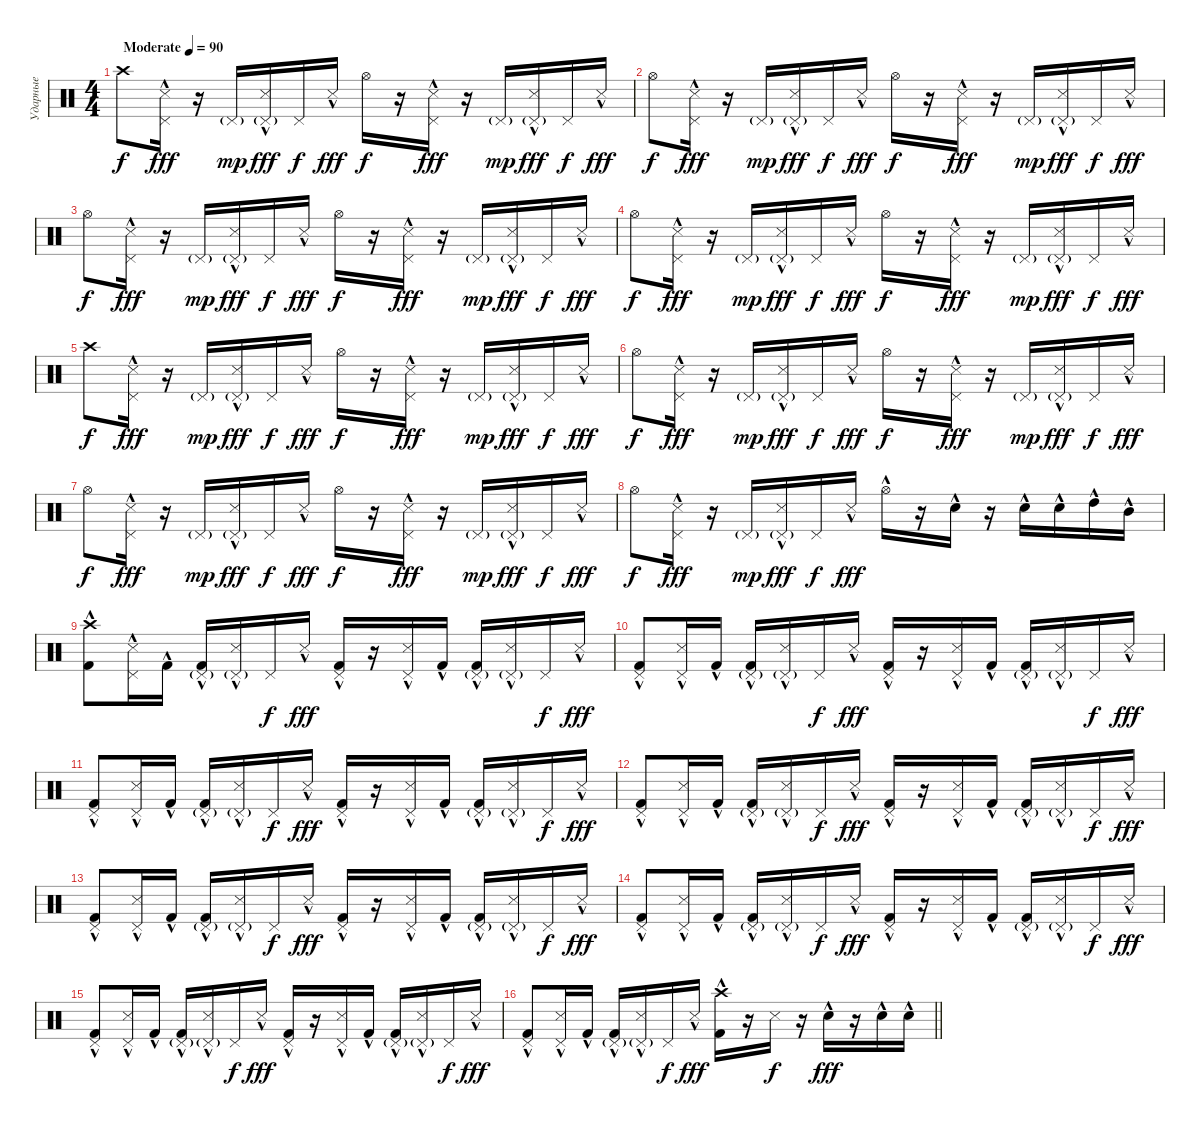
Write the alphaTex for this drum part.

\track ("Ударные" "Ударные") {instrument percussion}
\staff {score}
\articulation defaults
\ts (4 4)
\tempo (90 "Moderate")
\clef neutral
\ks c "Crash high (hit)".8{dy f}
("Pedal Hi-Hat (hit)" "Snare (side stick) 3"{hac}).16{dy fff} r.16 "Pedal Hi-Hat (hit)"{g}.16{dy mp} ("Pedal Hi-Hat (hit)"{g} "Snare (side stick) 3"{hac}).16{dy fff} "Pedal Hi-Hat (hit)".16{dy f} "Snare (side stick) 3"{hac}.16{dy fff} "Hi-Hat (open)".16{dy f} r.16 ("Pedal Hi-Hat (hit)" "Snare (side stick) 3"{hac}).16{dy fff} r.16 "Pedal Hi-Hat (hit)"{g}.16{dy mp} ("Pedal Hi-Hat (hit)"{g} "Snare (side stick) 3"{hac}).16{dy fff} "Pedal Hi-Hat (hit)".16{dy f} "Snare (side stick) 3"{hac}.16{dy fff} |
"Hi-Hat (open)".8{dy f} ("Pedal Hi-Hat (hit)" "Snare (side stick) 3"{hac}).16{dy fff} r.16 "Pedal Hi-Hat (hit)"{g}.16{dy mp} ("Pedal Hi-Hat (hit)"{g} "Snare (side stick) 3"{hac}).16{dy fff} "Pedal Hi-Hat (hit)".16{dy f} "Snare (side stick) 3"{hac}.16{dy fff} "Hi-Hat (open)".16{dy f} r.16 ("Pedal Hi-Hat (hit)" "Snare (side stick) 3"{hac}).16{dy fff} r.16 "Pedal Hi-Hat (hit)"{g}.16{dy mp} ("Pedal Hi-Hat (hit)"{g} "Snare (side stick) 3"{hac}).16{dy fff} "Pedal Hi-Hat (hit)".16{dy f} "Snare (side stick) 3"{hac}.16{dy fff} |
"Hi-Hat (open)".8{dy f} ("Pedal Hi-Hat (hit)" "Snare (side stick) 3"{hac}).16{dy fff} r.16 "Pedal Hi-Hat (hit)"{g}.16{dy mp} ("Pedal Hi-Hat (hit)"{g} "Snare (side stick) 3"{hac}).16{dy fff} "Pedal Hi-Hat (hit)".16{dy f} "Snare (side stick) 3"{hac}.16{dy fff} "Hi-Hat (open)".16{dy f} r.16 ("Pedal Hi-Hat (hit)" "Snare (side stick) 3"{hac}).16{dy fff} r.16 "Pedal Hi-Hat (hit)"{g}.16{dy mp} ("Pedal Hi-Hat (hit)"{g} "Snare (side stick) 3"{hac}).16{dy fff} "Pedal Hi-Hat (hit)".16{dy f} "Snare (side stick) 3"{hac}.16{dy fff} |
"Hi-Hat (open)".8{dy f} ("Pedal Hi-Hat (hit)" "Snare (side stick) 3"{hac}).16{dy fff} r.16 "Pedal Hi-Hat (hit)"{g}.16{dy mp} ("Pedal Hi-Hat (hit)"{g} "Snare (side stick) 3"{hac}).16{dy fff} "Pedal Hi-Hat (hit)".16{dy f} "Snare (side stick) 3"{hac}.16{dy fff} "Hi-Hat (open)".16{dy f} r.16 ("Pedal Hi-Hat (hit)" "Snare (side stick) 3"{hac}).16{dy fff} r.16 "Pedal Hi-Hat (hit)"{g}.16{dy mp} ("Pedal Hi-Hat (hit)"{g} "Snare (side stick) 3"{hac}).16{dy fff} "Pedal Hi-Hat (hit)".16{dy f} "Snare (side stick) 3"{hac}.16{dy fff} |
"Crash high (hit)".8{dy f} ("Pedal Hi-Hat (hit)" "Snare (side stick) 3"{hac}).16{dy fff} r.16 "Pedal Hi-Hat (hit)"{g}.16{dy mp} ("Pedal Hi-Hat (hit)"{g} "Snare (side stick) 3"{hac}).16{dy fff} "Pedal Hi-Hat (hit)".16{dy f} "Snare (side stick) 3"{hac}.16{dy fff} "Hi-Hat (open)".16{dy f} r.16 ("Pedal Hi-Hat (hit)" "Snare (side stick) 3"{hac}).16{dy fff} r.16 "Pedal Hi-Hat (hit)"{g}.16{dy mp} ("Pedal Hi-Hat (hit)"{g} "Snare (side stick) 3"{hac}).16{dy fff} "Pedal Hi-Hat (hit)".16{dy f} "Snare (side stick) 3"{hac}.16{dy fff} |
"Hi-Hat (open)".8{dy f} ("Pedal Hi-Hat (hit)" "Snare (side stick) 3"{hac}).16{dy fff} r.16 "Pedal Hi-Hat (hit)"{g}.16{dy mp} ("Pedal Hi-Hat (hit)"{g} "Snare (side stick) 3"{hac}).16{dy fff} "Pedal Hi-Hat (hit)".16{dy f} "Snare (side stick) 3"{hac}.16{dy fff} "Hi-Hat (open)".16{dy f} r.16 ("Pedal Hi-Hat (hit)" "Snare (side stick) 3"{hac}).16{dy fff} r.16 "Pedal Hi-Hat (hit)"{g}.16{dy mp} ("Pedal Hi-Hat (hit)"{g} "Snare (side stick) 3"{hac}).16{dy fff} "Pedal Hi-Hat (hit)".16{dy f} "Snare (side stick) 3"{hac}.16{dy fff} |
"Hi-Hat (open)".8{dy f} ("Pedal Hi-Hat (hit)" "Snare (side stick) 3"{hac}).16{dy fff} r.16 "Pedal Hi-Hat (hit)"{g}.16{dy mp} ("Pedal Hi-Hat (hit)"{g} "Snare (side stick) 3"{hac}).16{dy fff} "Pedal Hi-Hat (hit)".16{dy f} "Snare (side stick) 3"{hac}.16{dy fff} "Hi-Hat (open)".16{dy f} r.16 ("Pedal Hi-Hat (hit)" "Snare (side stick) 3"{hac}).16{dy fff} r.16 "Pedal Hi-Hat (hit)"{g}.16{dy mp} ("Pedal Hi-Hat (hit)"{g} "Snare (side stick) 3"{hac}).16{dy fff} "Pedal Hi-Hat (hit)".16{dy f} "Snare (side stick) 3"{hac}.16{dy fff} |
"Hi-Hat (open)".8{dy f} ("Pedal Hi-Hat (hit)" "Snare (side stick) 3"{hac}).16{dy fff} r.16 "Pedal Hi-Hat (hit)"{g}.16{dy mp} ("Pedal Hi-Hat (hit)"{g} "Snare (side stick) 3"{hac}).16{dy fff} "Pedal Hi-Hat (hit)".16{dy f} "Snare (side stick) 3"{hac}.16{dy fff} "Hi-Hat (open)"{hac}.16 r.16 "Electric Snare (hit)"{hac}.16 r.16 "Electric Snare (hit)"{hac}.16 "Electric Snare (hit)"{hac}.16 "High Tom (hit)"{hac}.16 "Mid Tom (hit)"{hac}.16 |
("Crash high (hit)" "Kick (hit) 2"{hac}).8 ("Pedal Hi-Hat (hit)" "Snare (side stick) 3"{hac}).16 "Kick (hit) 2"{hac}.16 ("Pedal Hi-Hat (hit)"{g} "Kick (hit) 2"{hac}).16 ("Pedal Hi-Hat (hit)"{g} "Snare (side stick) 3"{hac}).16 "Pedal Hi-Hat (hit)".16{dy f} "Snare (side stick) 3"{hac}.16{dy fff} ("Pedal Hi-Hat (hit)" "Kick (hit) 2"{hac}).16 r.16 ("Pedal Hi-Hat (hit)" "Snare (side stick) 3"{hac}).16 "Kick (hit) 2"{hac}.16 ("Pedal Hi-Hat (hit)"{g} "Kick (hit) 2"{hac}).16 ("Pedal Hi-Hat (hit)"{g} "Snare (side stick) 3"{hac}).16 "Pedal Hi-Hat (hit)".16{dy f} "Snare (side stick) 3"{hac}.16{dy fff} |
("Pedal Hi-Hat (hit)" "Kick (hit) 2"{hac}).8 ("Pedal Hi-Hat (hit)" "Snare (side stick) 3"{hac}).16 "Kick (hit) 2"{hac}.16 ("Pedal Hi-Hat (hit)"{g} "Kick (hit) 2"{hac}).16 ("Pedal Hi-Hat (hit)"{g} "Snare (side stick) 3"{hac}).16 "Pedal Hi-Hat (hit)".16{dy f} "Snare (side stick) 3"{hac}.16{dy fff} ("Pedal Hi-Hat (hit)" "Kick (hit) 2"{hac}).16 r.16 ("Pedal Hi-Hat (hit)" "Snare (side stick) 3"{hac}).16 "Kick (hit) 2"{hac}.16 ("Pedal Hi-Hat (hit)"{g} "Kick (hit) 2"{hac}).16 ("Pedal Hi-Hat (hit)"{g} "Snare (side stick) 3"{hac}).16 "Pedal Hi-Hat (hit)".16{dy f} "Snare (side stick) 3"{hac}.16{dy fff} |
("Pedal Hi-Hat (hit)" "Kick (hit) 2"{hac}).8 ("Pedal Hi-Hat (hit)" "Snare (side stick) 3"{hac}).16 "Kick (hit) 2"{hac}.16 ("Pedal Hi-Hat (hit)"{g} "Kick (hit) 2"{hac}).16 ("Pedal Hi-Hat (hit)"{g} "Snare (side stick) 3"{hac}).16 "Pedal Hi-Hat (hit)".16{dy f} "Snare (side stick) 3"{hac}.16{dy fff} ("Pedal Hi-Hat (hit)" "Kick (hit) 2"{hac}).16 r.16 ("Pedal Hi-Hat (hit)" "Snare (side stick) 3"{hac}).16 "Kick (hit) 2"{hac}.16 ("Pedal Hi-Hat (hit)"{g} "Kick (hit) 2"{hac}).16 ("Pedal Hi-Hat (hit)"{g} "Snare (side stick) 3"{hac}).16 "Pedal Hi-Hat (hit)".16{dy f} "Snare (side stick) 3"{hac}.16{dy fff} |
("Pedal Hi-Hat (hit)" "Kick (hit) 2"{hac}).8 ("Pedal Hi-Hat (hit)" "Snare (side stick) 3"{hac}).16 "Kick (hit) 2"{hac}.16 ("Pedal Hi-Hat (hit)"{g} "Kick (hit) 2"{hac}).16 ("Pedal Hi-Hat (hit)"{g} "Snare (side stick) 3"{hac}).16 "Pedal Hi-Hat (hit)".16{dy f} "Snare (side stick) 3"{hac}.16{dy fff} ("Pedal Hi-Hat (hit)" "Kick (hit) 2"{hac}).16 r.16 ("Pedal Hi-Hat (hit)" "Snare (side stick) 3"{hac}).16 "Kick (hit) 2"{hac}.16 ("Pedal Hi-Hat (hit)"{g} "Kick (hit) 2"{hac}).16 ("Pedal Hi-Hat (hit)"{g} "Snare (side stick) 3"{hac}).16 "Pedal Hi-Hat (hit)".16{dy f} "Snare (side stick) 3"{hac}.16{dy fff} |
("Pedal Hi-Hat (hit)" "Kick (hit) 2"{hac}).8 ("Pedal Hi-Hat (hit)" "Snare (side stick) 3"{hac}).16 "Kick (hit) 2"{hac}.16 ("Pedal Hi-Hat (hit)"{g} "Kick (hit) 2"{hac}).16 ("Pedal Hi-Hat (hit)"{g} "Snare (side stick) 3"{hac}).16 "Pedal Hi-Hat (hit)".16{dy f} "Snare (side stick) 3"{hac}.16{dy fff} ("Pedal Hi-Hat (hit)" "Kick (hit) 2"{hac}).16 r.16 ("Pedal Hi-Hat (hit)" "Snare (side stick) 3"{hac}).16 "Kick (hit) 2"{hac}.16 ("Pedal Hi-Hat (hit)"{g} "Kick (hit) 2"{hac}).16 ("Pedal Hi-Hat (hit)"{g} "Snare (side stick) 3"{hac}).16 "Pedal Hi-Hat (hit)".16{dy f} "Snare (side stick) 3"{hac}.16{dy fff} |
("Pedal Hi-Hat (hit)" "Kick (hit) 2"{hac}).8 ("Pedal Hi-Hat (hit)" "Snare (side stick) 3"{hac}).16 "Kick (hit) 2"{hac}.16 ("Pedal Hi-Hat (hit)"{g} "Kick (hit) 2"{hac}).16 ("Pedal Hi-Hat (hit)"{g} "Snare (side stick) 3"{hac}).16 "Pedal Hi-Hat (hit)".16{dy f} "Snare (side stick) 3"{hac}.16{dy fff} ("Pedal Hi-Hat (hit)" "Kick (hit) 2"{hac}).16 r.16 ("Pedal Hi-Hat (hit)" "Snare (side stick) 3"{hac}).16 "Kick (hit) 2"{hac}.16 ("Pedal Hi-Hat (hit)"{g} "Kick (hit) 2"{hac}).16 ("Pedal Hi-Hat (hit)"{g} "Snare (side stick) 3"{hac}).16 "Pedal Hi-Hat (hit)".16{dy f} "Snare (side stick) 3"{hac}.16{dy fff} |
("Pedal Hi-Hat (hit)" "Kick (hit) 2"{hac}).8 ("Pedal Hi-Hat (hit)" "Snare (side stick) 3"{hac}).16 "Kick (hit) 2"{hac}.16 ("Pedal Hi-Hat (hit)"{g} "Kick (hit) 2"{hac}).16 ("Pedal Hi-Hat (hit)"{g} "Snare (side stick) 3"{hac}).16 "Pedal Hi-Hat (hit)".16{dy f} "Snare (side stick) 3"{hac}.16{dy fff} ("Pedal Hi-Hat (hit)" "Kick (hit) 2"{hac}).16 r.16 ("Pedal Hi-Hat (hit)" "Snare (side stick) 3"{hac}).16 "Kick (hit) 2"{hac}.16 ("Pedal Hi-Hat (hit)"{g} "Kick (hit) 2"{hac}).16 ("Pedal Hi-Hat (hit)"{g} "Snare (side stick) 3"{hac}).16 "Pedal Hi-Hat (hit)".16{dy f} "Snare (side stick) 3"{hac}.16{dy fff} |
\barLineRight lightlight
("Pedal Hi-Hat (hit)" "Kick (hit) 2"{hac}).8 ("Pedal Hi-Hat (hit)" "Snare (side stick) 3"{hac}).16 "Kick (hit) 2"{hac}.16 ("Pedal Hi-Hat (hit)"{g} "Kick (hit) 2"{hac}).16 ("Pedal Hi-Hat (hit)"{g} "Snare (side stick) 3"{hac}).16 "Pedal Hi-Hat (hit)".16{dy f} "Snare (side stick) 3"{hac}.16{dy fff} ("Crash high (hit)" "Kick (hit) 2"{hac}).16 r.16 "Snare (side stick) 3".16{dy f} r.16 "Electric Snare (hit)"{hac}.16{dy fff} r.16 "Electric Snare (hit)"{hac}.16 "Electric Snare (hit)"{hac}.16
